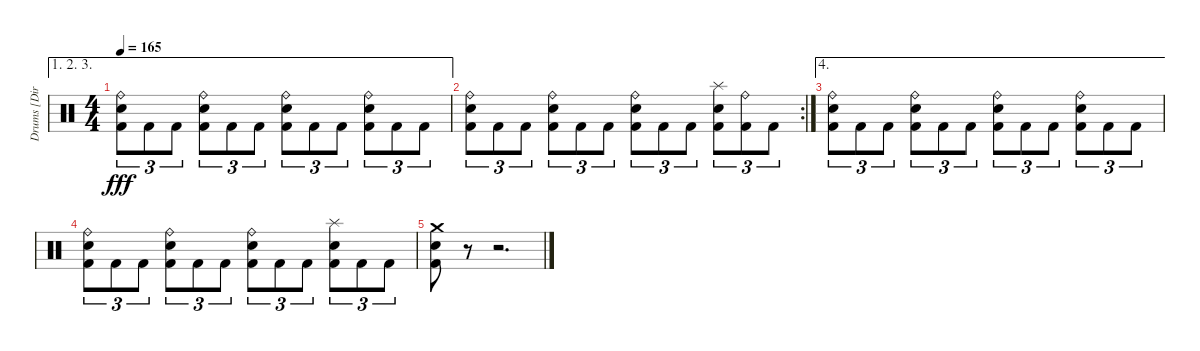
\track ("Drums [Dirge Rep]" "Drums [Dir") {instrument percussion}
\staff {score}
\articulation defaults
\ae (1 2 3)
\ts (4 4)
\tempo 165
\clef neutral
\ks c
("Ride (bell)" "Electric Snare (hit)" "Kick (hit) 2").8{tu (3 2) dy fff} "Kick (hit) 2".8{tu (3 2)} "Kick (hit) 2".8{tu (3 2)} ("Ride (bell)" "Electric Snare (hit)" "Kick (hit) 2").8{tu (3 2)} "Kick (hit) 2".8{tu (3 2)} "Kick (hit) 2".8{tu (3 2)} ("Ride (bell)" "Electric Snare (hit)" "Kick (hit) 2").8{tu (3 2)} "Kick (hit) 2".8{tu (3 2)} "Kick (hit) 2".8{tu (3 2)} ("Ride (bell)" "Electric Snare (hit)" "Kick (hit) 2").8{tu (3 2)} "Kick (hit) 2".8{tu (3 2)} "Kick (hit) 2".8{tu (3 2)} |
\rc 2
("Ride (bell)" "Electric Snare (hit)" "Kick (hit) 2").8{tu (3 2)} "Kick (hit) 2".8{tu (3 2)} "Kick (hit) 2".8{tu (3 2)} ("Ride (bell)" "Electric Snare (hit)" "Kick (hit) 2").8{tu (3 2)} "Kick (hit) 2".8{tu (3 2)} "Kick (hit) 2".8{tu (3 2)} ("Ride (bell)" "Electric Snare (hit)" "Kick (hit) 2").8{tu (3 2)} "Kick (hit) 2".8{tu (3 2)} "Kick (hit) 2".8{tu (3 2)} ("Splash (hit)" "Electric Snare (hit)" "Kick (hit) 2").8{tu (3 2)} ("Ride (bell)" "Kick (hit) 2").8{tu (3 2)} "Kick (hit) 2".8{tu (3 2)} |
\ae 4
("Ride (bell)" "Electric Snare (hit)" "Kick (hit) 2").8{tu (3 2)} "Kick (hit) 2".8{tu (3 2)} "Kick (hit) 2".8{tu (3 2)} ("Ride (bell)" "Electric Snare (hit)" "Kick (hit) 2").8{tu (3 2)} "Kick (hit) 2".8{tu (3 2)} "Kick (hit) 2".8{tu (3 2)} ("Ride (bell)" "Electric Snare (hit)" "Kick (hit) 2").8{tu (3 2)} "Kick (hit) 2".8{tu (3 2)} "Kick (hit) 2".8{tu (3 2)} ("Ride (bell)" "Electric Snare (hit)" "Kick (hit) 2").8{tu (3 2)} "Kick (hit) 2".8{tu (3 2)} "Kick (hit) 2".8{tu (3 2)} |
("Ride (bell)" "Electric Snare (hit)" "Kick (hit) 2").8{tu (3 2)} "Kick (hit) 2".8{tu (3 2)} "Kick (hit) 2".8{tu (3 2)} ("Ride (bell)" "Electric Snare (hit)" "Kick (hit) 2").8{tu (3 2)} "Kick (hit) 2".8{tu (3 2)} "Kick (hit) 2".8{tu (3 2)} ("Ride (bell)" "Electric Snare (hit)" "Kick (hit) 2").8{tu (3 2)} "Kick (hit) 2".8{tu (3 2)} "Kick (hit) 2".8{tu (3 2)} ("Splash (hit)" "Electric Snare (hit)" "Kick (hit) 2").8{tu (3 2)} "Kick (hit) 2".8{tu (3 2)} "Kick (hit) 2".8{tu (3 2)} |
("Crash medium (hit)" "Electric Snare (hit)" "Kick (hit) 2").8 r.8 r.2{d}
